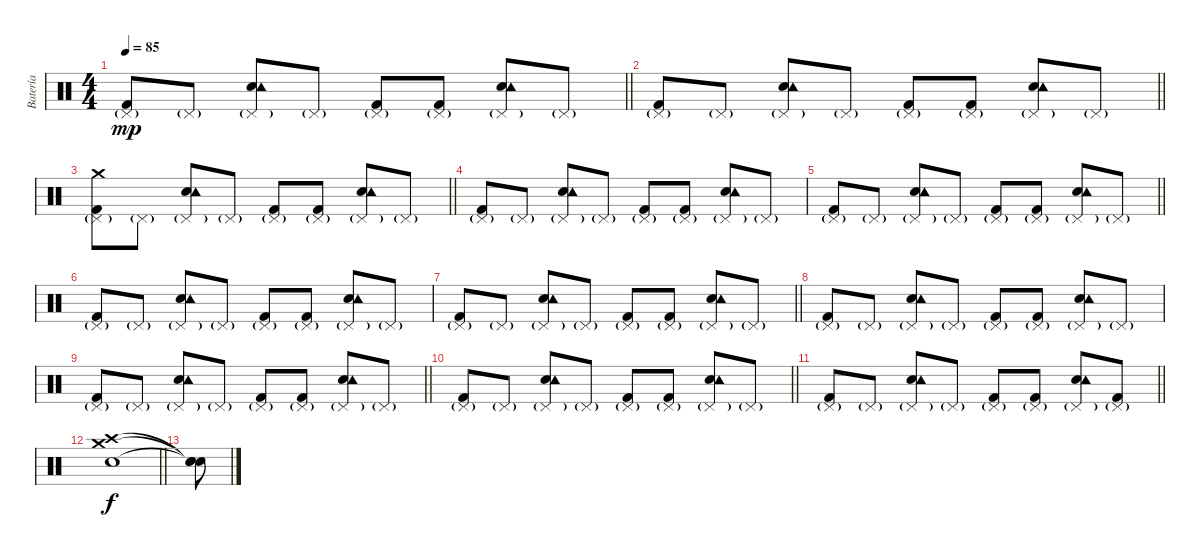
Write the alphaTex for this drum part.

\track ("Batería" "Batería") {instrument percussion}
\staff {score}
\articulation defaults
\ts (4 4)
\tempo 85
\clef neutral
\barLineRight lightlight
\ks c
("Pedal Hi-Hat (hit)"{g} "Kick (hit) 2").8{dy mp} "Pedal Hi-Hat (hit)"{g}.8 ("Pedal Hi-Hat (hit)"{g} "Electric Snare (hit)" "Tambourine (hit)").8 "Pedal Hi-Hat (hit)"{g}.8 ("Pedal Hi-Hat (hit)"{g} "Kick (hit) 2").8 ("Pedal Hi-Hat (hit)"{g} "Kick (hit) 2").8 ("Pedal Hi-Hat (hit)"{g} "Electric Snare (hit)" "Tambourine (hit)").8 "Pedal Hi-Hat (hit)"{g}.8 |
\barLineRight lightlight
("Pedal Hi-Hat (hit)"{g} "Kick (hit) 2").8 "Pedal Hi-Hat (hit)"{g}.8 ("Pedal Hi-Hat (hit)"{g} "Electric Snare (hit)" "Tambourine (hit)").8 "Pedal Hi-Hat (hit)"{g}.8 ("Pedal Hi-Hat (hit)"{g} "Kick (hit) 2").8 ("Pedal Hi-Hat (hit)"{g} "Kick (hit) 2").8 ("Pedal Hi-Hat (hit)"{g} "Electric Snare (hit)" "Tambourine (hit)").8 "Pedal Hi-Hat (hit)"{g}.8 |
\barLineRight lightlight
("Pedal Hi-Hat (hit)"{g} "Kick (hit) 2" "Crash medium (hit)").8 "Pedal Hi-Hat (hit)"{g}.8 ("Pedal Hi-Hat (hit)"{g} "Electric Snare (hit)" "Tambourine (hit)").8 "Pedal Hi-Hat (hit)"{g}.8 ("Pedal Hi-Hat (hit)"{g} "Kick (hit) 2").8 ("Pedal Hi-Hat (hit)"{g} "Kick (hit) 2").8 ("Pedal Hi-Hat (hit)"{g} "Electric Snare (hit)" "Tambourine (hit)").8 "Pedal Hi-Hat (hit)"{g}.8 |
("Pedal Hi-Hat (hit)"{g} "Kick (hit) 2").8 "Pedal Hi-Hat (hit)"{g}.8 ("Pedal Hi-Hat (hit)"{g} "Electric Snare (hit)" "Tambourine (hit)").8 "Pedal Hi-Hat (hit)"{g}.8 ("Pedal Hi-Hat (hit)"{g} "Kick (hit) 2").8 ("Pedal Hi-Hat (hit)"{g} "Kick (hit) 2").8 ("Pedal Hi-Hat (hit)"{g} "Electric Snare (hit)" "Tambourine (hit)").8 "Pedal Hi-Hat (hit)"{g}.8 |
\barLineRight lightlight
("Pedal Hi-Hat (hit)"{g} "Kick (hit) 2").8 "Pedal Hi-Hat (hit)"{g}.8 ("Pedal Hi-Hat (hit)"{g} "Electric Snare (hit)" "Tambourine (hit)").8 "Pedal Hi-Hat (hit)"{g}.8 ("Pedal Hi-Hat (hit)"{g} "Kick (hit) 2").8 ("Pedal Hi-Hat (hit)"{g} "Kick (hit) 2").8 ("Pedal Hi-Hat (hit)"{g} "Electric Snare (hit)" "Tambourine (hit)").8 "Pedal Hi-Hat (hit)"{g}.8 |
("Pedal Hi-Hat (hit)"{g} "Kick (hit) 2").8 "Pedal Hi-Hat (hit)"{g}.8 ("Pedal Hi-Hat (hit)"{g} "Electric Snare (hit)" "Tambourine (hit)").8 "Pedal Hi-Hat (hit)"{g}.8 ("Pedal Hi-Hat (hit)"{g} "Kick (hit) 2").8 ("Pedal Hi-Hat (hit)"{g} "Kick (hit) 2").8 ("Pedal Hi-Hat (hit)"{g} "Electric Snare (hit)" "Tambourine (hit)").8 "Pedal Hi-Hat (hit)"{g}.8 |
\barLineRight lightlight
("Pedal Hi-Hat (hit)"{g} "Kick (hit) 2").8 "Pedal Hi-Hat (hit)"{g}.8 ("Pedal Hi-Hat (hit)"{g} "Electric Snare (hit)" "Tambourine (hit)").8 "Pedal Hi-Hat (hit)"{g}.8 ("Pedal Hi-Hat (hit)"{g} "Kick (hit) 2").8 ("Pedal Hi-Hat (hit)"{g} "Kick (hit) 2").8 ("Pedal Hi-Hat (hit)"{g} "Electric Snare (hit)" "Tambourine (hit)").8 "Pedal Hi-Hat (hit)"{g}.8 |
("Pedal Hi-Hat (hit)"{g} "Kick (hit) 2").8 "Pedal Hi-Hat (hit)"{g}.8 ("Pedal Hi-Hat (hit)"{g} "Electric Snare (hit)" "Tambourine (hit)").8 "Pedal Hi-Hat (hit)"{g}.8 ("Pedal Hi-Hat (hit)"{g} "Kick (hit) 2").8 ("Pedal Hi-Hat (hit)"{g} "Kick (hit) 2").8 ("Pedal Hi-Hat (hit)"{g} "Electric Snare (hit)" "Tambourine (hit)").8 "Pedal Hi-Hat (hit)"{g}.8 |
\barLineRight lightlight
("Pedal Hi-Hat (hit)"{g} "Kick (hit) 2").8 "Pedal Hi-Hat (hit)"{g}.8 ("Pedal Hi-Hat (hit)"{g} "Electric Snare (hit)" "Tambourine (hit)").8 "Pedal Hi-Hat (hit)"{g}.8 ("Pedal Hi-Hat (hit)"{g} "Kick (hit) 2").8 ("Pedal Hi-Hat (hit)"{g} "Kick (hit) 2").8 ("Pedal Hi-Hat (hit)"{g} "Electric Snare (hit)" "Tambourine (hit)").8 "Pedal Hi-Hat (hit)"{g}.8 |
\barLineRight lightlight
("Pedal Hi-Hat (hit)"{g} "Kick (hit) 2").8 "Pedal Hi-Hat (hit)"{g}.8 ("Pedal Hi-Hat (hit)"{g} "Electric Snare (hit)" "Tambourine (hit)").8 "Pedal Hi-Hat (hit)"{g}.8 ("Pedal Hi-Hat (hit)"{g} "Kick (hit) 2").8 ("Pedal Hi-Hat (hit)"{g} "Kick (hit) 2").8 ("Pedal Hi-Hat (hit)"{g} "Electric Snare (hit)" "Tambourine (hit)").8 "Pedal Hi-Hat (hit)"{g}.8 |
\barLineRight lightlight
("Pedal Hi-Hat (hit)"{g} "Kick (hit) 2").8 "Pedal Hi-Hat (hit)"{g}.8 ("Pedal Hi-Hat (hit)"{g} "Electric Snare (hit)" "Tambourine (hit)").8 "Pedal Hi-Hat (hit)"{g}.8 ("Pedal Hi-Hat (hit)"{g} "Kick (hit) 2").8 ("Pedal Hi-Hat (hit)"{g} "Kick (hit) 2").8 ("Pedal Hi-Hat (hit)"{g} "Electric Snare (hit)" "Tambourine (hit)").8 ("Pedal Hi-Hat (hit)"{g} "Kick (hit) 2").8 |
\barLineRight lightlight
("Electric Snare (hit)" "Crash medium (hit)" "Crash high (hit)").1{dy f} |
("Snare (hit)"{t} "Snare (hit)"{t} "Snare (hit)"{t}).8
